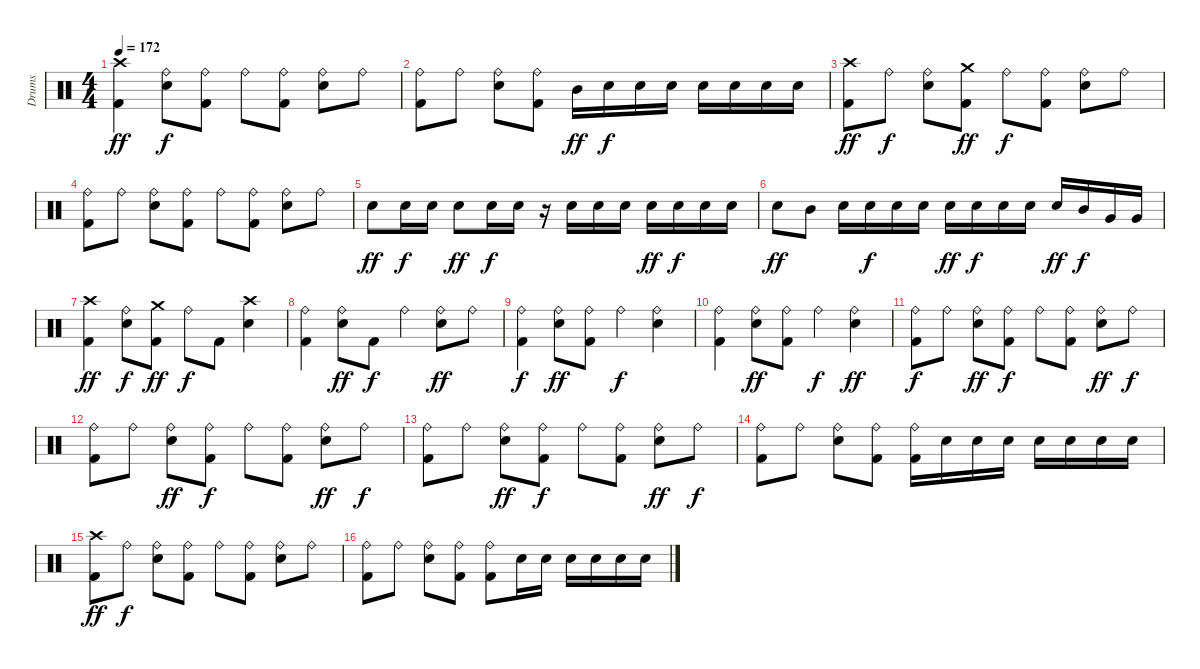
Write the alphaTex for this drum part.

\track ("Drums" "Drums") {instrument percussion}
\staff {score}
\articulation defaults
\ts (4 4)
\tempo 172
\clef neutral
\ks c
("Crash high (hit)" "Kick (hit) 2").4{dy ff} ("Ride (bell)" "Electric Snare (hit)").8{dy f} ("Ride (bell)" "Kick (hit) 2").8 "Ride (bell)".8 ("Ride (bell)" "Kick (hit) 2").8 ("Ride (bell)" "Electric Snare (hit)").8 "Ride (bell)".8 |
("Ride (bell)" "Kick (hit) 2").8 "Ride (bell)".8 ("Ride (bell)" "Electric Snare (hit)").8 ("Ride (bell)" "Kick (hit) 2").8 "Mid Tom (hit)".16{dy ff} "Electric Snare (hit)".16{dy f} "Electric Snare (hit)".16 "Electric Snare (hit)".16 "Electric Snare (hit)".16 "Electric Snare (hit)".16 "Electric Snare (hit)".16 "Electric Snare (hit)".16 |
("Crash high (hit)" "Kick (hit) 2").8{dy ff} "Ride (bell)".8{dy f} ("Ride (bell)" "Electric Snare (hit)").8 ("Crash medium (hit)" "Kick (hit) 2").8{dy ff} "Ride (bell)".8{dy f} ("Ride (bell)" "Kick (hit) 2").8 ("Ride (bell)" "Electric Snare (hit)").8 "Ride (bell)".8 |
("Ride (bell)" "Kick (hit) 2").8 "Ride (bell)".8 ("Ride (bell)" "Electric Snare (hit)").8 ("Ride (bell)" "Kick (hit) 2").8 "Ride (bell)".8 ("Ride (bell)" "Kick (hit) 2").8 ("Ride (bell)" "Electric Snare (hit)").8 "Ride (bell)".8 |
"Electric Snare (hit)".8{dy ff} "Electric Snare (hit)".16{dy f} "Electric Snare (hit)".16 "Electric Snare (hit)".8{dy ff} "Electric Snare (hit)".16{dy f} "Electric Snare (hit)".16 r.16 "Electric Snare (hit)".16 "Electric Snare (hit)".16 "Electric Snare (hit)".16 "Electric Snare (hit)".16{dy ff} "Electric Snare (hit)".16{dy f} "Electric Snare (hit)".16 "Electric Snare (hit)".16 |
"Electric Snare (hit)".8{dy ff} "Mid Tom (hit)".8 "Electric Snare (hit)".16 "Electric Snare (hit)".16{dy f} "Electric Snare (hit)".16 "Electric Snare (hit)".16 "Electric Snare (hit)".16{dy ff} "Electric Snare (hit)".16{dy f} "Electric Snare (hit)".16 "Electric Snare (hit)".16 "Electric Snare (hit)".16{dy ff} "Mid Tom (hit)".16{dy f} "Very Low Tom (hit)".16 "Very Low Tom (hit)".16 |
("Crash high (hit)" "Kick (hit) 2").4{dy ff} ("Ride (bell)" "Electric Snare (hit)").8{dy f} ("Crash medium (hit)" "Kick (hit) 2").8{dy ff} "Ride (bell)".8{dy f} "Kick (hit) 2".8 ("Crash high (hit)" "Electric Snare (hit)").4 |
("Ride (bell)" "Kick (hit) 2").4 ("Ride (bell)" "Electric Snare (hit)").8{dy ff} "Kick (hit) 2".8{dy f} "Ride (bell)".4 ("Ride (bell)" "Electric Snare (hit)").8{dy ff} "Ride (bell)".8 |
("Ride (bell)" "Kick (hit) 2").4{dy f} ("Ride (bell)" "Electric Snare (hit)").8{dy ff} ("Ride (bell)" "Kick (hit) 2").8 "Ride (bell)".4{dy f} ("Ride (bell)" "Electric Snare (hit)").4 |
("Ride (bell)" "Kick (hit) 2").4 ("Ride (bell)" "Electric Snare (hit)").8{dy ff} ("Ride (bell)" "Kick (hit) 2").8 "Ride (bell)".4{dy f} ("Ride (bell)" "Electric Snare (hit)").4{dy ff} |
("Ride (bell)" "Kick (hit) 2").8{dy f} "Ride (bell)".8 ("Ride (bell)" "Electric Snare (hit)").8{dy ff} ("Ride (bell)" "Kick (hit) 2").8{dy f} "Ride (bell)".8 ("Ride (bell)" "Kick (hit) 2").8 ("Ride (bell)" "Electric Snare (hit)").8{dy ff} "Ride (bell)".8{dy f} |
("Ride (bell)" "Kick (hit) 2").8 "Ride (bell)".8 ("Ride (bell)" "Electric Snare (hit)").8{dy ff} ("Ride (bell)" "Kick (hit) 2").8{dy f} "Ride (bell)".8 ("Ride (bell)" "Kick (hit) 2").8 ("Ride (bell)" "Electric Snare (hit)").8{dy ff} "Ride (bell)".8{dy f} |
("Ride (bell)" "Kick (hit) 2").8 "Ride (bell)".8 ("Ride (bell)" "Electric Snare (hit)").8{dy ff} ("Ride (bell)" "Kick (hit) 2").8{dy f} "Ride (bell)".8 ("Ride (bell)" "Kick (hit) 2").8 ("Ride (bell)" "Electric Snare (hit)").8{dy ff} "Ride (bell)".8{dy f} |
("Ride (bell)" "Kick (hit) 2").8 "Ride (bell)".8 ("Ride (bell)" "Electric Snare (hit)").8 ("Ride (bell)" "Kick (hit) 2").8 ("Ride (bell)" "Kick (hit) 2").16 "Electric Snare (hit)".16 "Electric Snare (hit)".16 "Electric Snare (hit)".16 "Electric Snare (hit)".16 "Electric Snare (hit)".16 "Electric Snare (hit)".16 "Electric Snare (hit)".16 |
("Crash high (hit)" "Kick (hit) 2").8{dy ff} "Ride (bell)".8{dy f} ("Ride (bell)" "Electric Snare (hit)").8 ("Ride (bell)" "Kick (hit) 2").8 "Ride (bell)".8 ("Ride (bell)" "Kick (hit) 2").8 ("Ride (bell)" "Electric Snare (hit)").8 "Ride (bell)".8 |
("Ride (bell)" "Kick (hit) 2").8 "Ride (bell)".8 ("Ride (bell)" "Electric Snare (hit)").8 ("Ride (bell)" "Kick (hit) 2").8 ("Ride (bell)" "Kick (hit) 2").8 "Electric Snare (hit)".16 "Electric Snare (hit)".16 "Electric Snare (hit)".16 "Electric Snare (hit)".16 "Electric Snare (hit)".16 "Electric Snare (hit)".16
